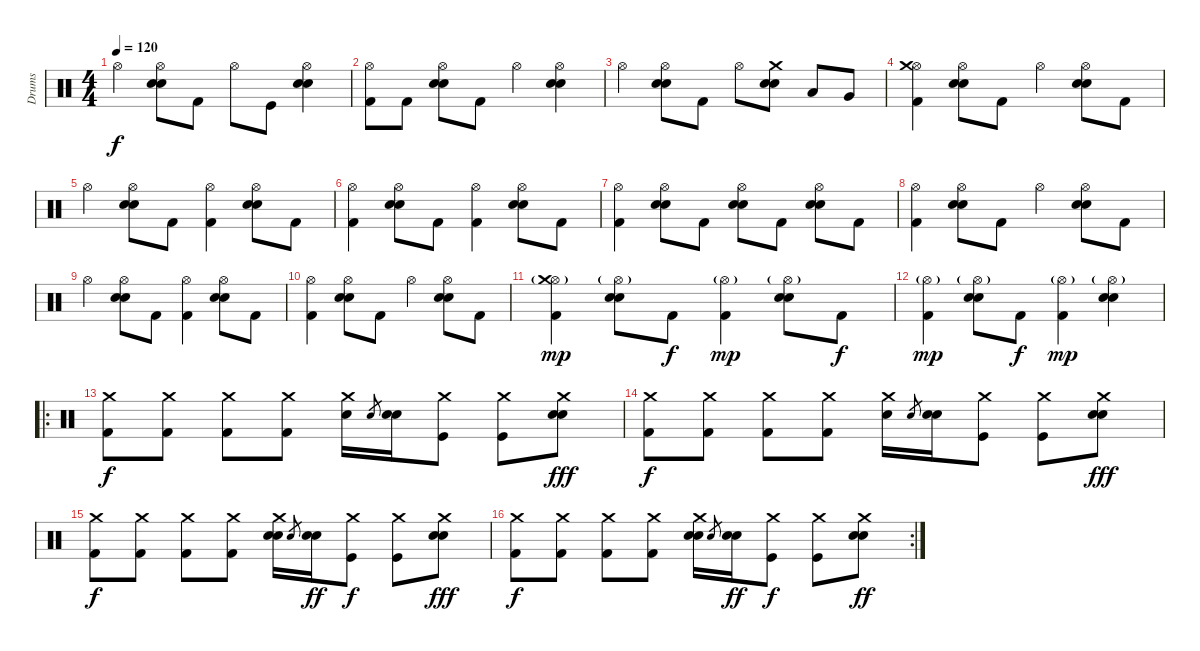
\track ("Drums" "Drums") {instrument percussion}
\staff {score}
\articulation defaults
\ts (4 4)
\tempo 120
\clef neutral
\ks c "Hi-Hat (open)".4{dy f}
("Hi-Hat (open)" "Electric Snare (hit)" "Snare (hit) 2").8 "Kick (hit) 2".8 "Hi-Hat (open)".8 "Kick (hit)".8 ("Electric Snare (hit)" "Snare (hit) 2" "Hi-Hat (open)").4 |
("Hi-Hat (open)" "Kick (hit) 2").8 "Kick (hit) 2".8 ("Hi-Hat (open)" "Electric Snare (hit)" "Snare (hit) 2").8 "Kick (hit) 2".8 "Hi-Hat (open)".4 ("Electric Snare (hit)" "Hi-Hat (open)" "Snare (hit) 2").4 |
"Hi-Hat (open)".4 ("Electric Snare (hit)" "Snare (hit) 2" "Hi-Hat (open)").8 "Kick (hit) 2".8 "Hi-Hat (open)".8 ("Crash medium (hit)" "Electric Snare (hit)" "Snare (hit) 2").8 "Low Tom (hit)".8 "Very Low Tom (hit)".8 |
("Hi-Hat (open)" "Crash medium (hit)" "Kick (hit) 2").4 ("Electric Snare (hit)" "Snare (hit) 2" "Hi-Hat (open)").8 "Kick (hit) 2".8 "Hi-Hat (open)".4 ("Electric Snare (hit)" "Snare (hit) 2" "Hi-Hat (open)").8 "Kick (hit) 2".8 |
"Hi-Hat (open)".4 ("Hi-Hat (open)" "Electric Snare (hit)" "Snare (hit) 2").8 "Kick (hit) 2".8 ("Hi-Hat (open)" "Kick (hit) 2").4 ("Electric Snare (hit)" "Snare (hit) 2" "Hi-Hat (open)").8 "Kick (hit) 2".8 |
("Hi-Hat (open)" "Kick (hit) 2").4 ("Electric Snare (hit)" "Snare (hit) 2" "Hi-Hat (open)").8 "Kick (hit) 2".8 ("Hi-Hat (open)" "Kick (hit) 2").4 ("Electric Snare (hit)" "Snare (hit) 2" "Hi-Hat (open)").8 "Kick (hit) 2".8 |
("Hi-Hat (open)" "Kick (hit) 2").4 ("Electric Snare (hit)" "Snare (hit) 2" "Hi-Hat (open)").8 "Kick (hit) 2".8 ("Electric Snare (hit)" "Snare (hit) 2" "Hi-Hat (open)").8 "Kick (hit) 2".8 ("Electric Snare (hit)" "Snare (hit) 2" "Hi-Hat (open)").8 "Kick (hit) 2".8 |
("Hi-Hat (open)" "Kick (hit) 2").4 ("Electric Snare (hit)" "Snare (hit) 2" "Hi-Hat (open)").8 "Kick (hit) 2".8 "Hi-Hat (open)".4 ("Electric Snare (hit)" "Snare (hit) 2" "Hi-Hat (open)").8 "Kick (hit) 2".8 |
"Hi-Hat (open)".4 ("Hi-Hat (open)" "Electric Snare (hit)" "Snare (hit) 2").8 "Kick (hit) 2".8 ("Hi-Hat (open)" "Kick (hit) 2").4 ("Electric Snare (hit)" "Snare (hit) 2" "Hi-Hat (open)").8 "Kick (hit) 2".8 |
("Hi-Hat (open)" "Kick (hit) 2").4 ("Electric Snare (hit)" "Snare (hit) 2" "Hi-Hat (open)").8 "Kick (hit) 2".8 "Hi-Hat (open)".4 ("Electric Snare (hit)" "Snare (hit) 2" "Hi-Hat (open)").8 "Kick (hit) 2".8 |
("Hi-Hat (open)"{g} "Crash medium (hit)" "Kick (hit) 2").4{dy mp} ("Electric Snare (hit)" "Snare (hit) 2" "Hi-Hat (open)"{g}).8 "Kick (hit) 2".8{dy f} ("Hi-Hat (open)"{g} "Kick (hit) 2").4{dy mp} ("Electric Snare (hit)" "Snare (hit) 2" "Hi-Hat (open)"{g}).8 "Kick (hit) 2".8{dy f} |
("Hi-Hat (open)"{g} "Kick (hit) 2").4{dy mp} ("Electric Snare (hit)" "Snare (hit) 2" "Hi-Hat (open)"{g}).8 "Kick (hit) 2".8{dy f} ("Hi-Hat (open)"{g} "Kick (hit) 2").4{dy mp} ("Electric Snare (hit)" "Snare (hit) 2" "Hi-Hat (open)"{g}).4 |
\ro
("Crash medium (hit)" "Kick (hit) 2").8{dy f} ("Crash medium (hit)" "Kick (hit) 2").8 ("Crash medium (hit)" "Kick (hit) 2").8 ("Crash medium (hit)" "Kick (hit) 2").8 ("Crash medium (hit)" "Electric Snare (hit)").16 "Electric Snare (hit)".8{gr} ("Electric Snare (hit)" "Snare (hit) 2").16 ("Crash medium (hit)" "Kick (hit)").8 ("Crash medium (hit)" "Kick (hit)").8 ("Crash medium (hit)" "Electric Snare (hit)" "Snare (hit) 2").8{dy fff} |
("Crash medium (hit)" "Kick (hit) 2").8{dy f} ("Crash medium (hit)" "Kick (hit) 2").8 ("Crash medium (hit)" "Kick (hit) 2").8 ("Crash medium (hit)" "Kick (hit) 2").8 ("Crash medium (hit)" "Electric Snare (hit)").16 "Electric Snare (hit)".8{gr} ("Electric Snare (hit)" "Snare (hit) 2").16 ("Crash medium (hit)" "Kick (hit)").8 ("Crash medium (hit)" "Kick (hit)").8 ("Crash medium (hit)" "Electric Snare (hit)" "Snare (hit) 2").8{dy fff} |
("Crash medium (hit)" "Kick (hit) 2").8{dy f} ("Crash medium (hit)" "Kick (hit) 2").8 ("Crash medium (hit)" "Kick (hit) 2").8 ("Crash medium (hit)" "Kick (hit) 2").8 ("Crash medium (hit)" "Electric Snare (hit)" "Snare (hit) 2").16 "Electric Snare (hit)".8{gr} ("Electric Snare (hit)" "Snare (hit) 2").16{dy ff} ("Crash medium (hit)" "Kick (hit)").8{dy f} ("Crash medium (hit)" "Kick (hit)").8 ("Crash medium (hit)" "Electric Snare (hit)" "Snare (hit) 2").8{dy fff} |
\rc 2
("Crash medium (hit)" "Kick (hit) 2").8{dy f} ("Crash medium (hit)" "Kick (hit) 2").8 ("Crash medium (hit)" "Kick (hit) 2").8 ("Crash medium (hit)" "Kick (hit) 2").8 ("Crash medium (hit)" "Electric Snare (hit)" "Snare (hit) 2").16 "Electric Snare (hit)".8{gr} ("Electric Snare (hit)" "Snare (hit) 2").16{dy ff} ("Crash medium (hit)" "Kick (hit)").8{dy f} ("Crash medium (hit)" "Kick (hit)").8 ("Crash medium (hit)" "Electric Snare (hit)" "Snare (hit) 2").8{dy ff}
